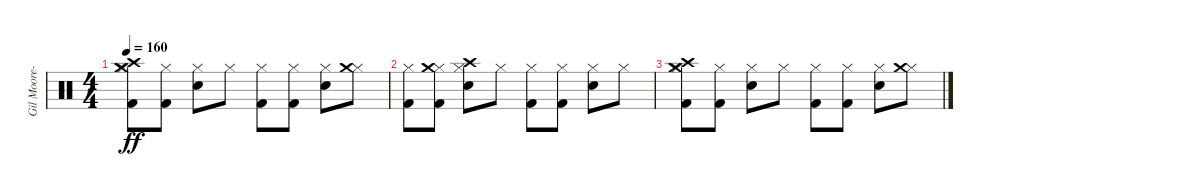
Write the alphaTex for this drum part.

\track ("Gil Moore-Drums n Vocals" "Gil Moore-") {instrument percussion}
\staff {score}
\articulation defaults
\ts (4 4)
\tempo 160
\clef neutral
\ks c
("Kick (hit) 2" "Hi-Hat (closed)" "Crash high (hit)" "Crash medium (hit)").8{dy ff} ("Kick (hit) 2" "Hi-Hat (closed)").8 ("Electric Snare (hit)" "Hi-Hat (closed)").8 "Hi-Hat (closed)".8 ("Kick (hit) 2" "Hi-Hat (closed)").8 ("Kick (hit) 2" "Hi-Hat (closed)").8 ("Electric Snare (hit)" "Hi-Hat (closed)").8 ("Hi-Hat (closed)" "Crash medium (hit)").8 |
("Kick (hit) 2" "Hi-Hat (closed)").8 ("Kick (hit) 2" "Hi-Hat (closed)" "Crash medium (hit)").8 ("Electric Snare (hit)" "Hi-Hat (closed)" "Crash high (hit)").8 "Hi-Hat (closed)".8 ("Kick (hit) 2" "Hi-Hat (closed)").8 ("Kick (hit) 2" "Hi-Hat (closed)").8 ("Electric Snare (hit)" "Hi-Hat (closed)").8 "Hi-Hat (closed)".8 |
("Kick (hit) 2" "Hi-Hat (closed)" "Crash high (hit)" "Crash medium (hit)").8 ("Kick (hit) 2" "Hi-Hat (closed)").8 ("Electric Snare (hit)" "Hi-Hat (closed)").8 "Hi-Hat (closed)".8 ("Kick (hit) 2" "Hi-Hat (closed)").8 ("Kick (hit) 2" "Hi-Hat (closed)").8 ("Electric Snare (hit)" "Hi-Hat (closed)").8 ("Hi-Hat (closed)" "Crash medium (hit)").8
